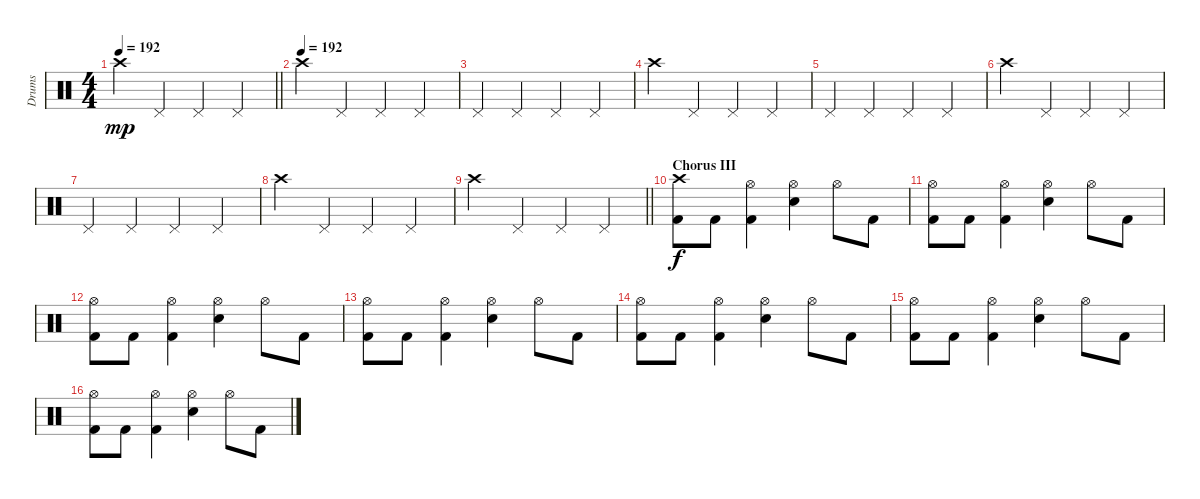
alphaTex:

\track ("Drums" "Drums") {instrument percussion}
\staff {score}
\articulation defaults
\ts (4 4)
\tempo 192
\clef neutral
\barLineRight lightlight
\ks c "Crash high (hit)".4{dy mp} "Pedal Hi-Hat (hit)".4 "Pedal Hi-Hat (hit)".4 "Pedal Hi-Hat (hit)".4
|
\tempo (192)
"Crash high (hit)".4 "Pedal Hi-Hat (hit)".4 "Pedal Hi-Hat (hit)".4 "Pedal Hi-Hat (hit)".4 |
"Pedal Hi-Hat (hit)".4 "Pedal Hi-Hat (hit)".4 "Pedal Hi-Hat (hit)".4 "Pedal Hi-Hat (hit)".4 |
"Crash high (hit)".4 "Pedal Hi-Hat (hit)".4 "Pedal Hi-Hat (hit)".4 "Pedal Hi-Hat (hit)".4 |
"Pedal Hi-Hat (hit)".4 "Pedal Hi-Hat (hit)".4 "Pedal Hi-Hat (hit)".4 "Pedal Hi-Hat (hit)".4 |
"Crash high (hit)".4 "Pedal Hi-Hat (hit)".4 "Pedal Hi-Hat (hit)".4 "Pedal Hi-Hat (hit)".4 |
"Pedal Hi-Hat (hit)".4 "Pedal Hi-Hat (hit)".4 "Pedal Hi-Hat (hit)".4 "Pedal Hi-Hat (hit)".4 |
"Crash high (hit)".4 "Pedal Hi-Hat (hit)".4 "Pedal Hi-Hat (hit)".4 "Pedal Hi-Hat (hit)".4 |
\barLineRight lightlight "Crash high (hit)".4 "Pedal Hi-Hat (hit)".4 "Pedal Hi-Hat (hit)".4 "Pedal Hi-Hat (hit)".4
|
\section ("" "Chorus III")
("Crash high (hit)" "Kick (hit) 2").8{dy f} "Kick (hit) 2".8 ("Hi-Hat (open)" "Kick (hit) 2").4 ("Hi-Hat (open)" "Snare (hit) 2").4 "Hi-Hat (open)".8 "Kick (hit) 2".8 |
("Hi-Hat (open)" "Kick (hit) 2").8 "Kick (hit) 2".8 ("Hi-Hat (open)" "Kick (hit) 2").4 ("Hi-Hat (open)" "Snare (hit) 2").4 "Hi-Hat (open)".8 "Kick (hit) 2".8 |
("Hi-Hat (open)" "Kick (hit) 2").8 "Kick (hit) 2".8 ("Hi-Hat (open)" "Kick (hit) 2").4 ("Hi-Hat (open)" "Snare (hit) 2").4 "Hi-Hat (open)".8 "Kick (hit) 2".8 |
("Hi-Hat (open)" "Kick (hit) 2").8 "Kick (hit) 2".8 ("Hi-Hat (open)" "Kick (hit) 2").4 ("Hi-Hat (open)" "Snare (hit) 2").4 "Hi-Hat (open)".8 "Kick (hit) 2".8 |
("Hi-Hat (open)" "Kick (hit) 2").8 "Kick (hit) 2".8 ("Hi-Hat (open)" "Kick (hit) 2").4 ("Hi-Hat (open)" "Snare (hit) 2").4 "Hi-Hat (open)".8 "Kick (hit) 2".8 |
("Hi-Hat (open)" "Kick (hit) 2").8 "Kick (hit) 2".8 ("Hi-Hat (open)" "Kick (hit) 2").4 ("Hi-Hat (open)" "Snare (hit) 2").4 "Hi-Hat (open)".8 "Kick (hit) 2".8 |
("Hi-Hat (open)" "Kick (hit) 2").8 "Kick (hit) 2".8 ("Hi-Hat (open)" "Kick (hit) 2").4 ("Hi-Hat (open)" "Snare (hit) 2").4 "Hi-Hat (open)".8 "Kick (hit) 2".8
